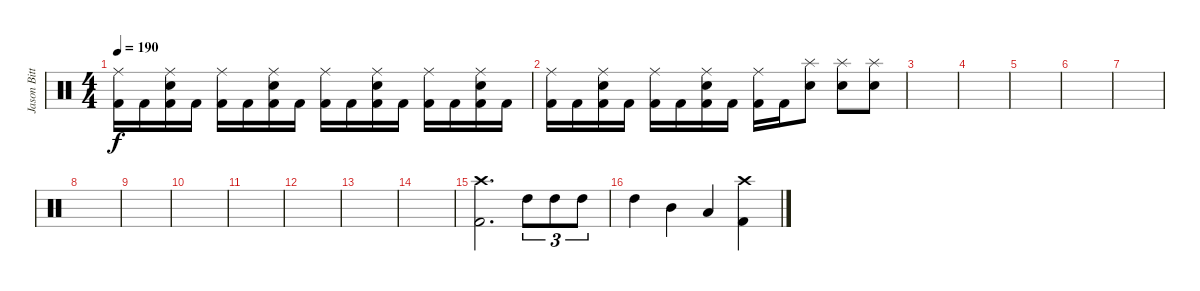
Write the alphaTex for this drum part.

\track ("Jason Bittner" "Jason Bitt") {instrument percussion}
\staff {score}
\articulation defaults
\ts (4 4)
\tempo 190
\clef neutral
\ks c
("Ride (middle)" "Kick (hit) 2").16{dy f} "Kick (hit) 2".16 ("Ride (middle)" "Electric Snare (hit)" "Kick (hit) 2").16 "Kick (hit) 2".16 ("Ride (middle)" "Kick (hit) 2").16 "Kick (hit) 2".16 ("Ride (middle)" "Electric Snare (hit)" "Kick (hit) 2").16 "Kick (hit) 2".16 ("Ride (middle)" "Kick (hit) 2").16 "Kick (hit) 2".16 ("Ride (middle)" "Electric Snare (hit)" "Kick (hit) 2").16 "Kick (hit) 2".16 ("Ride (middle)" "Kick (hit) 2").16 "Kick (hit) 2".16 ("Ride (middle)" "Electric Snare (hit)" "Kick (hit) 2").16 "Kick (hit) 2".16 |
("Ride (middle)" "Kick (hit) 2").16 "Kick (hit) 2".16 ("Ride (middle)" "Electric Snare (hit)" "Kick (hit) 2").16 "Kick (hit) 2".16 ("Ride (middle)" "Kick (hit) 2").16 "Kick (hit) 2".16 ("Ride (middle)" "Electric Snare (hit)" "Kick (hit) 2").16 "Kick (hit) 2".16 ("Ride (middle)" "Kick (hit) 2").16 "Kick (hit) 2".16 ("Splash (hit)" "Electric Snare (hit)").8 ("Splash (hit)" "Electric Snare (hit)").8 ("Splash (hit)" "Electric Snare (hit)").8 |
|
|
|
|
|
|
|
|
|
|
|
|
("Crash high (hit)" "Kick (hit) 2").2{d} "High Tom (hit)".8{tu (3 2)} "High Tom (hit)".8{tu (3 2)} "High Tom (hit)".8{tu (3 2)} |
"High Tom (hit)".4 "Mid Tom (hit)".4 "Low Tom (hit)".4 ("Crash high (hit)" "Kick (hit) 2").4
